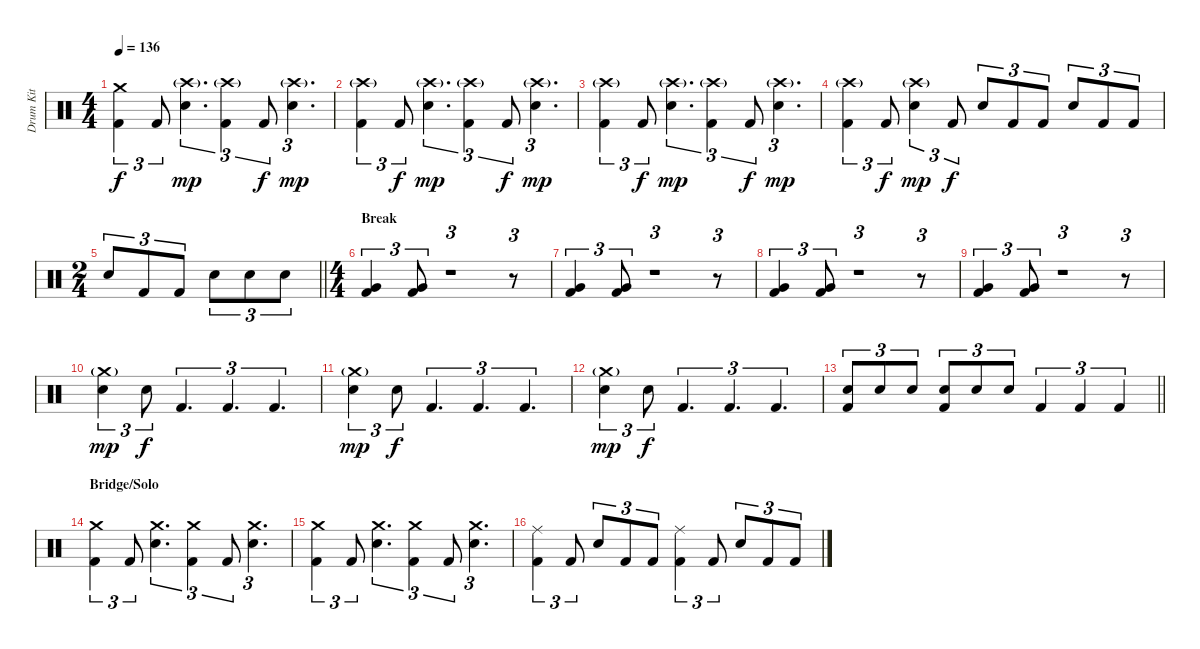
\track ("Drum Kit" "Drum Kit") {instrument percussion}
\staff {score}
\articulation defaults
\ts (4 4)
\tempo 136
\clef neutral
\ks c
("Crash medium (hit)" "Kick (hit) 2").4{tu (3 2) dy f} "Kick (hit) 2".8{tu (3 2)} ("Crash high (hit)"{g} "Electric Snare (hit)").4{d tu (3 2) dy mp} ("Crash high (hit)"{g} "Kick (hit) 2").4{tu (3 2)} "Kick (hit) 2".8{tu (3 2) dy f} ("Crash high (hit)"{g} "Electric Snare (hit)").4{d tu (3 2) dy mp} |
("Crash high (hit)"{g} "Kick (hit) 2").4{tu (3 2)} "Kick (hit) 2".8{tu (3 2) dy f} ("Crash high (hit)"{g} "Electric Snare (hit)").4{d tu (3 2) dy mp} ("Crash high (hit)"{g} "Kick (hit) 2").4{tu (3 2)} "Kick (hit) 2".8{tu (3 2) dy f} ("Crash high (hit)"{g} "Electric Snare (hit)").4{d tu (3 2) dy mp} |
("Crash high (hit)"{g} "Kick (hit) 2").4{tu (3 2)} "Kick (hit) 2".8{tu (3 2) dy f} ("Crash high (hit)"{g} "Electric Snare (hit)").4{d tu (3 2) dy mp} ("Crash high (hit)"{g} "Kick (hit) 2").4{tu (3 2)} "Kick (hit) 2".8{tu (3 2) dy f} ("Crash high (hit)"{g} "Electric Snare (hit)").4{d tu (3 2) dy mp} |
("Crash high (hit)"{g} "Kick (hit) 2").4{tu (3 2)} "Kick (hit) 2".8{tu (3 2) dy f} ("Crash high (hit)"{g} "Electric Snare (hit)").4{tu (3 2) dy mp} "Kick (hit) 2".8{tu (3 2) dy f} "Electric Snare (hit)".8{tu (3 2)} "Kick (hit) 2".8{tu (3 2)} "Kick (hit) 2".8{tu (3 2)} "Electric Snare (hit)".8{tu (3 2)} "Kick (hit) 2".8{tu (3 2)} "Kick (hit) 2".8{tu (3 2)} |
\ts (2 4)
\barLineRight lightlight "Electric Snare (hit)".8{tu (3 2)} "Kick (hit) 2".8{tu (3 2)} "Kick (hit) 2".8{tu (3 2)} "Electric Snare (hit)".8{tu (3 2)} "Electric Snare (hit)".8{tu (3 2)} "Electric Snare (hit)".8{tu (3 2)}
|
\ts (4 4)
\section ("" "Break")
("Very Low Tom (hit)" "Kick (hit) 2").4{tu (3 2)} ("Very Low Tom (hit)" "Kick (hit) 2").8{tu (3 2)} r.1{tu (3 2)} r.8{tu (3 2)} |
("Very Low Tom (hit)" "Kick (hit) 2").4{tu (3 2)} ("Very Low Tom (hit)" "Kick (hit) 2").8{tu (3 2)} r.1{tu (3 2)} r.8{tu (3 2)} |
("Very Low Tom (hit)" "Kick (hit) 2").4{tu (3 2)} ("Very Low Tom (hit)" "Kick (hit) 2").8{tu (3 2)} r.1{tu (3 2)} r.8{tu (3 2)} |
("Very Low Tom (hit)" "Kick (hit) 2").4{tu (3 2)} ("Very Low Tom (hit)" "Kick (hit) 2").8{tu (3 2)} r.1{tu (3 2)} r.8{tu (3 2)} |
("Crash medium (hit)"{g} "Electric Snare (hit)").4{tu (3 2) dy mp} "Electric Snare (hit)".8{tu (3 2) dy f} "Kick (hit) 2".4{d tu (3 2)} "Kick (hit) 2".4{d tu (3 2)} "Kick (hit) 2".4{d tu (3 2)} |
("Crash medium (hit)"{g} "Electric Snare (hit)").4{tu (3 2) dy mp} "Electric Snare (hit)".8{tu (3 2) dy f} "Kick (hit) 2".4{d tu (3 2)} "Kick (hit) 2".4{d tu (3 2)} "Kick (hit) 2".4{d tu (3 2)} |
("Crash medium (hit)"{g} "Electric Snare (hit)").4{tu (3 2) dy mp} "Electric Snare (hit)".8{tu (3 2) dy f} "Kick (hit) 2".4{d tu (3 2)} "Kick (hit) 2".4{d tu (3 2)} "Kick (hit) 2".4{d tu (3 2)} |
\barLineRight lightlight
("Electric Snare (hit)" "Kick (hit) 2").8{tu (3 2)} "Electric Snare (hit)".8{tu (3 2)} "Electric Snare (hit)".8{tu (3 2)} ("Electric Snare (hit)" "Kick (hit) 2").8{tu (3 2)} "Electric Snare (hit)".8{tu (3 2)} "Electric Snare (hit)".8{tu (3 2)} "Kick (hit) 2".4{tu (3 2)} "Kick (hit) 2".4{tu (3 2)} "Kick (hit) 2".4{tu (3 2)} |
\section ("" "Bridge/Solo")
("Crash medium (hit)" "Kick (hit) 2").4{tu (3 2)} "Kick (hit) 2".8{tu (3 2)} ("Crash medium (hit)" "Electric Snare (hit)").4{d tu (3 2)} ("Crash medium (hit)" "Kick (hit) 2").4{tu (3 2)} "Kick (hit) 2".8{tu (3 2)} ("Crash medium (hit)" "Electric Snare (hit)").4{d tu (3 2)} |
("Crash medium (hit)" "Kick (hit) 2").4{tu (3 2)} "Kick (hit) 2".8{tu (3 2)} ("Crash medium (hit)" "Electric Snare (hit)").4{d tu (3 2)} ("Crash medium (hit)" "Kick (hit) 2").4{tu (3 2)} "Kick (hit) 2".8{tu (3 2)} ("Crash medium (hit)" "Electric Snare (hit)").4{d tu (3 2)} |
("Ride (middle)" "Kick (hit) 2").4{tu (3 2)} "Kick (hit) 2".8{tu (3 2)} "Electric Snare (hit)".8{tu (3 2)} "Kick (hit) 2".8{tu (3 2)} "Kick (hit) 2".8{tu (3 2)} ("Ride (middle)" "Kick (hit) 2").4{tu (3 2)} "Kick (hit) 2".8{tu (3 2)} "Electric Snare (hit)".8{tu (3 2)} "Kick (hit) 2".8{tu (3 2)} "Kick (hit) 2".8{tu (3 2)}
